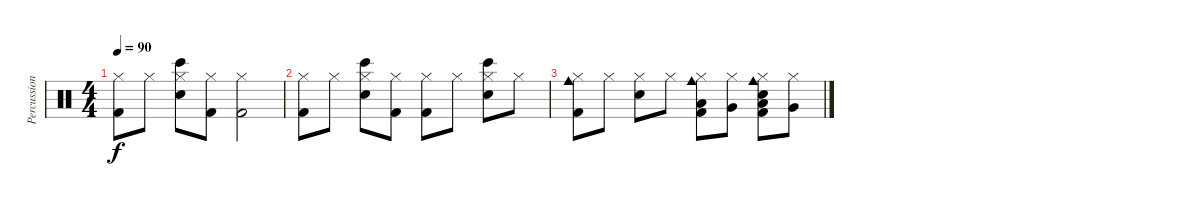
\track ("Percussion" "Percussion") {instrument percussion}
\staff {score}
\articulation defaults
\ts (4 4)
\tempo 90
\clef neutral
\ks c
("Hi-Hat (closed)" "Kick (hit) 2").8{dy f} "Hi-Hat (closed)".8 ("Hi-Hat (closed)" "Bongo High (hit)" "Snare (hit) 2").8 ("Hi-Hat (closed)" "Kick (hit) 2").8 ("Hi-Hat (closed)" "Kick (hit) 2").2 |
("Hi-Hat (closed)" "Kick (hit) 2").8 "Hi-Hat (closed)".8 ("Hi-Hat (closed)" "Bongo High (hit)" "Snare (hit) 2").8 ("Hi-Hat (closed)" "Kick (hit) 2").8 ("Hi-Hat (closed)" "Kick (hit) 2").8 "Hi-Hat (closed)".8 ("Hi-Hat (closed)" "Bongo High (hit)" "Snare (hit) 2").8 "Hi-Hat (closed)".8 |
("Hi-Hat (closed)" "Cowbell medium (hit)" "Kick (hit) 2").8 "Hi-Hat (closed)".8 ("Hi-Hat (closed)" "Snare (hit) 2").8 "Hi-Hat (closed)".8 ("Hi-Hat (closed)" "Cowbell medium (hit)" "Low Tom (hit)" "Kick (hit) 2").8 ("Hi-Hat (closed)" "Very Low Tom (hit)").8 ("Hi-Hat (closed)" "Cowbell medium (hit)" "Low Tom (hit)" "Snare (hit) 2" "Kick (hit) 2").8 ("Hi-Hat (closed)" "Very Low Tom (hit)").8
